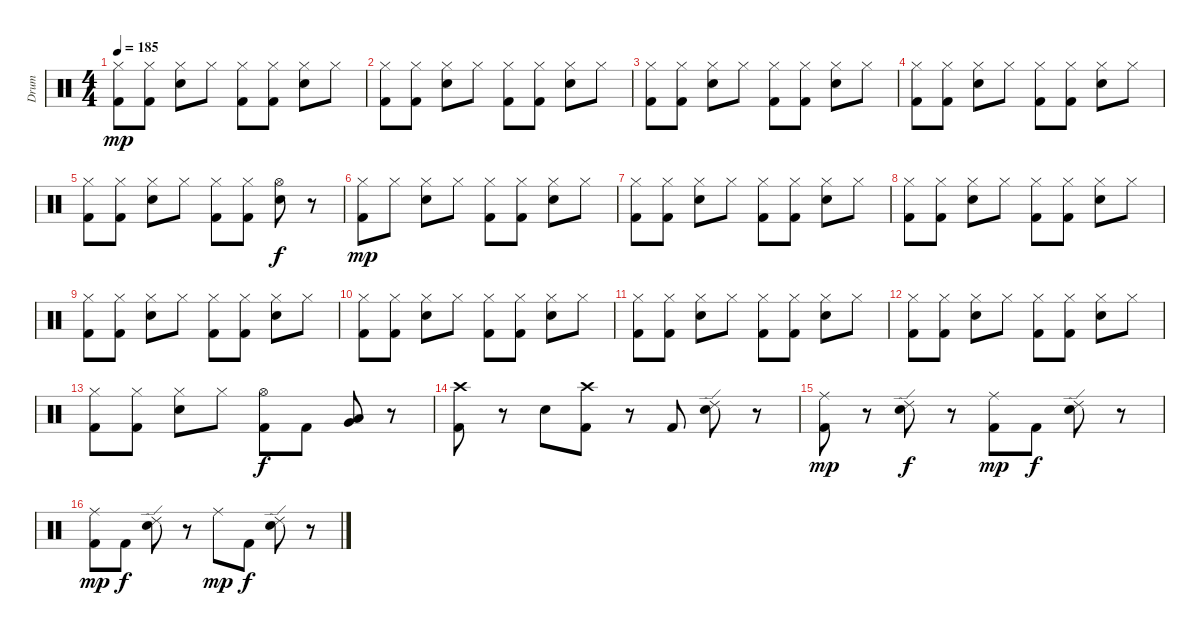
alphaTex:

\track ("Drum" "Drum") {instrument percussion}
\staff {score}
\articulation defaults
\ts (4 4)
\tempo 185
\clef neutral
\ks c
("Hi-Hat (closed)" "Kick (hit) 2").8{dy mp} ("Hi-Hat (closed)" "Kick (hit) 2").8 ("Hi-Hat (closed)" "Electric Snare (hit)").8 "Hi-Hat (closed)".8 ("Hi-Hat (closed)" "Kick (hit) 2").8 ("Hi-Hat (closed)" "Kick (hit) 2").8 ("Hi-Hat (closed)" "Electric Snare (hit)").8 "Hi-Hat (closed)".8 |
("Hi-Hat (closed)" "Kick (hit) 2").8 ("Hi-Hat (closed)" "Kick (hit) 2").8 ("Hi-Hat (closed)" "Electric Snare (hit)").8 "Hi-Hat (closed)".8 ("Hi-Hat (closed)" "Kick (hit) 2").8 ("Hi-Hat (closed)" "Kick (hit) 2").8 ("Hi-Hat (closed)" "Electric Snare (hit)").8 "Hi-Hat (closed)".8 |
("Hi-Hat (closed)" "Kick (hit) 2").8 ("Hi-Hat (closed)" "Kick (hit) 2").8 ("Hi-Hat (closed)" "Electric Snare (hit)").8 "Hi-Hat (closed)".8 ("Hi-Hat (closed)" "Kick (hit) 2").8 ("Hi-Hat (closed)" "Kick (hit) 2").8 ("Hi-Hat (closed)" "Electric Snare (hit)").8 "Hi-Hat (closed)".8 |
("Hi-Hat (closed)" "Kick (hit) 2").8 ("Hi-Hat (closed)" "Kick (hit) 2").8 ("Hi-Hat (closed)" "Electric Snare (hit)").8 "Hi-Hat (closed)".8 ("Hi-Hat (closed)" "Kick (hit) 2").8 ("Hi-Hat (closed)" "Kick (hit) 2").8 ("Hi-Hat (closed)" "Electric Snare (hit)").8 "Hi-Hat (closed)".8 |
("Hi-Hat (closed)" "Kick (hit) 2").8 ("Hi-Hat (closed)" "Kick (hit) 2").8 ("Hi-Hat (closed)" "Electric Snare (hit)").8 "Hi-Hat (closed)".8 ("Hi-Hat (closed)" "Kick (hit) 2").8 ("Hi-Hat (closed)" "Kick (hit) 2").8 ("Electric Snare (hit)" "Hi-Hat (open)").8{dy f} r.8 |
("Hi-Hat (closed)" "Kick (hit) 2").8{dy mp} "Hi-Hat (closed)".8 ("Hi-Hat (closed)" "Electric Snare (hit)").8 "Hi-Hat (closed)".8 ("Hi-Hat (closed)" "Kick (hit) 2").8 ("Hi-Hat (closed)" "Kick (hit) 2").8 ("Hi-Hat (closed)" "Electric Snare (hit)").8 "Hi-Hat (closed)".8 |
("Hi-Hat (closed)" "Kick (hit) 2").8 ("Hi-Hat (closed)" "Kick (hit) 2").8 ("Hi-Hat (closed)" "Electric Snare (hit)").8 "Hi-Hat (closed)".8 ("Hi-Hat (closed)" "Kick (hit) 2").8 ("Hi-Hat (closed)" "Kick (hit) 2").8 ("Hi-Hat (closed)" "Electric Snare (hit)").8 "Hi-Hat (closed)".8 |
("Hi-Hat (closed)" "Kick (hit) 2").8 ("Hi-Hat (closed)" "Kick (hit) 2").8 ("Hi-Hat (closed)" "Electric Snare (hit)").8 "Hi-Hat (closed)".8 ("Hi-Hat (closed)" "Kick (hit) 2").8 ("Hi-Hat (closed)" "Kick (hit) 2").8 ("Hi-Hat (closed)" "Electric Snare (hit)").8 "Hi-Hat (closed)".8 |
("Hi-Hat (closed)" "Kick (hit) 2").8 ("Hi-Hat (closed)" "Kick (hit) 2").8 ("Hi-Hat (closed)" "Electric Snare (hit)").8 "Hi-Hat (closed)".8 ("Hi-Hat (closed)" "Kick (hit) 2").8 ("Hi-Hat (closed)" "Kick (hit) 2").8 ("Hi-Hat (closed)" "Electric Snare (hit)").8 "Hi-Hat (closed)".8 |
("Hi-Hat (closed)" "Kick (hit) 2").8 ("Hi-Hat (closed)" "Kick (hit) 2").8 ("Hi-Hat (closed)" "Electric Snare (hit)").8 "Hi-Hat (closed)".8 ("Hi-Hat (closed)" "Kick (hit) 2").8 ("Hi-Hat (closed)" "Kick (hit) 2").8 ("Hi-Hat (closed)" "Electric Snare (hit)").8 "Hi-Hat (closed)".8 |
("Hi-Hat (closed)" "Kick (hit) 2").8 ("Hi-Hat (closed)" "Kick (hit) 2").8 ("Hi-Hat (closed)" "Electric Snare (hit)").8 "Hi-Hat (closed)".8 ("Hi-Hat (closed)" "Kick (hit) 2").8 ("Hi-Hat (closed)" "Kick (hit) 2").8 ("Hi-Hat (closed)" "Electric Snare (hit)").8 "Hi-Hat (closed)".8 |
("Hi-Hat (closed)" "Kick (hit) 2").8 ("Hi-Hat (closed)" "Kick (hit) 2").8 ("Hi-Hat (closed)" "Electric Snare (hit)").8 "Hi-Hat (closed)".8 ("Hi-Hat (closed)" "Kick (hit) 2").8 ("Hi-Hat (closed)" "Kick (hit) 2").8 ("Hi-Hat (closed)" "Electric Snare (hit)").8 "Hi-Hat (closed)".8 |
("Hi-Hat (closed)" "Kick (hit) 2").8 ("Hi-Hat (closed)" "Kick (hit) 2").8 ("Hi-Hat (closed)" "Electric Snare (hit)").8 "Hi-Hat (closed)".8 ("Kick (hit) 2" "Hi-Hat (open)").8{dy f} "Kick (hit) 2".8 ("Very Low Tom (hit)" "Low Tom (hit)").8 r.8 |
("Crash high (hit)" "Kick (hit) 2").8 r.8 "Electric Snare (hit)".8 ("Kick (hit) 2" "Crash high (hit)").8 r.8 "Kick (hit) 2".8 ("Ride (edge) 2" "Electric Snare (hit)").8 r.8 |
("Ride (middle)" "Kick (hit) 2").8{dy mp} r.8 ("Ride (edge) 2" "Electric Snare (hit)").8{dy f} r.8 ("Ride (middle)" "Kick (hit) 2").8{dy mp} "Kick (hit) 2".8{dy f} ("Ride (edge) 2" "Electric Snare (hit)").8 r.8 |
("Ride (middle)" "Kick (hit) 2").8{dy mp} "Kick (hit) 2".8{dy f} ("Ride (edge) 2" "Electric Snare (hit)").8 r.8 "Ride (middle)".8{dy mp} "Kick (hit) 2".8{dy f} ("Ride (edge) 2" "Electric Snare (hit)").8 r.8
